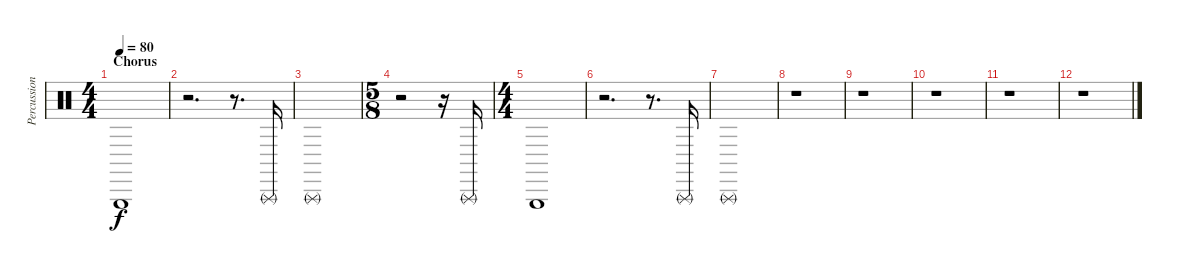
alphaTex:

\track ("Percussion" "Percussion") {instrument percussion}
\staff {score}
\articulation defaults
\ts (4 4)
\section ("" "Chorus")
\tempo 80
\clef neutral
\ks c "Triangle (hit)".1{dy f}
|
r.2{d} r.8{d} "Triangle (rnute)".16 |
"Triangle (rnute)".1 |
\ts (5 8)
r.2 r.16 "Triangle (rnute)".16 |
\ts (4 4)
"Triangle (hit)".1 |
r.2{d} r.8{d} "Triangle (rnute)".16 |
"Triangle (rnute)".1 |
r.1 |
r.1 |
r.1 |
r.1 |
r.1
